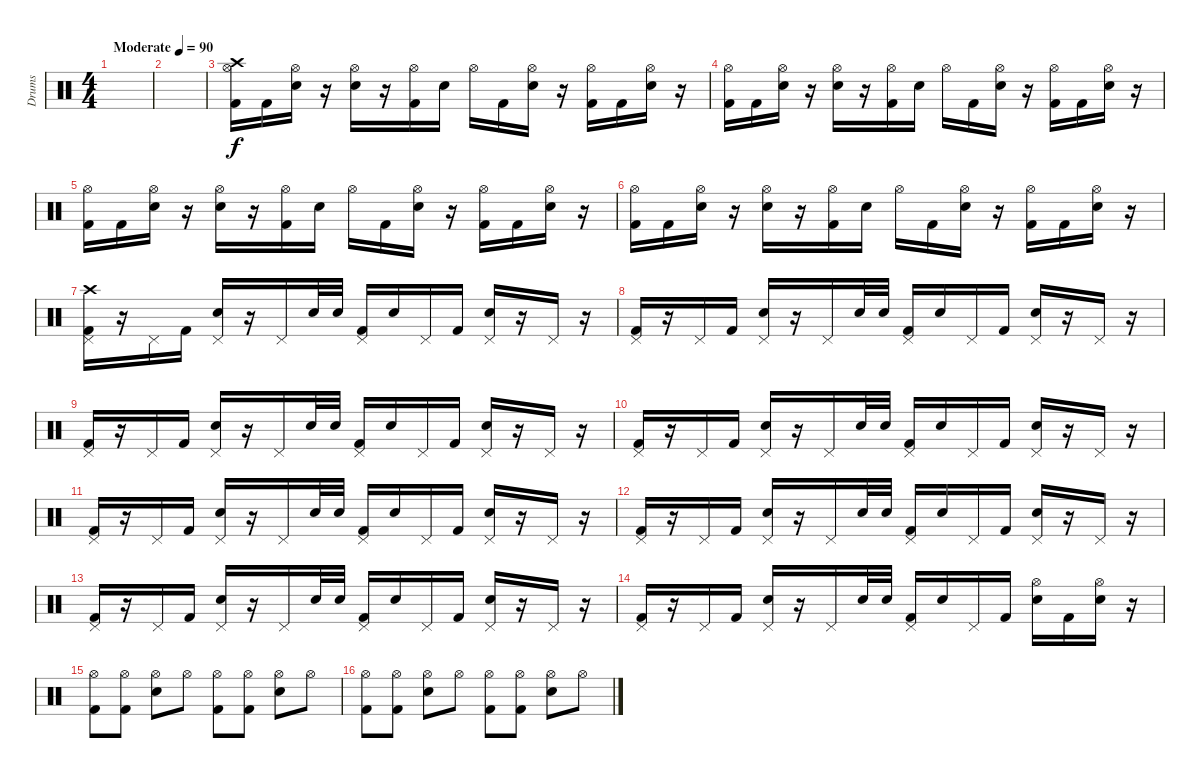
\track ("Drums" "Drums") {instrument percussion}
\staff {score}
\articulation defaults
\ts (4 4)
\tempo (90 "Moderate")
\clef neutral
\ks c
|
|
("Crash high (hit)" "Hi-Hat (open)" "Kick (hit) 2").16 "Kick (hit) 2".16 ("Hi-Hat (open)" "Electric Snare (hit)").16 r.16 ("Hi-Hat (open)" "Electric Snare (hit)").16 r.16 ("Hi-Hat (open)" "Kick (hit) 2").16 "Electric Snare (hit)".16 "Hi-Hat (open)".16 "Kick (hit) 2".16 ("Hi-Hat (open)" "Electric Snare (hit)").16 r.16 ("Hi-Hat (open)" "Kick (hit) 2").16 "Kick (hit) 2".16 ("Hi-Hat (open)" "Electric Snare (hit)").16 r.16 |
("Hi-Hat (open)" "Kick (hit) 2").16 "Kick (hit) 2".16 ("Hi-Hat (open)" "Electric Snare (hit)").16 r.16 ("Hi-Hat (open)" "Electric Snare (hit)").16 r.16 ("Hi-Hat (open)" "Kick (hit) 2").16 "Electric Snare (hit)".16 "Hi-Hat (open)".16 "Kick (hit) 2".16 ("Hi-Hat (open)" "Electric Snare (hit)").16 r.16 ("Hi-Hat (open)" "Kick (hit) 2").16 "Kick (hit) 2".16 ("Hi-Hat (open)" "Electric Snare (hit)").16 r.16 |
("Hi-Hat (open)" "Kick (hit) 2").16 "Kick (hit) 2".16 ("Hi-Hat (open)" "Electric Snare (hit)").16 r.16 ("Hi-Hat (open)" "Electric Snare (hit)").16 r.16 ("Hi-Hat (open)" "Kick (hit) 2").16 "Electric Snare (hit)".16 "Hi-Hat (open)".16 "Kick (hit) 2".16 ("Hi-Hat (open)" "Electric Snare (hit)").16 r.16 ("Hi-Hat (open)" "Kick (hit) 2").16 "Kick (hit) 2".16 ("Hi-Hat (open)" "Electric Snare (hit)").16 r.16 |
("Hi-Hat (open)" "Kick (hit) 2").16 "Kick (hit) 2".16 ("Hi-Hat (open)" "Electric Snare (hit)").16 r.16 ("Hi-Hat (open)" "Electric Snare (hit)").16 r.16 ("Hi-Hat (open)" "Kick (hit) 2").16 "Electric Snare (hit)".16 "Hi-Hat (open)".16 "Kick (hit) 2".16 ("Hi-Hat (open)" "Electric Snare (hit)").16 r.16 ("Hi-Hat (open)" "Kick (hit) 2").16 "Kick (hit) 2".16 ("Hi-Hat (open)" "Electric Snare (hit)").16 r.16 |
("Crash high (hit)" "Pedal Hi-Hat (hit)" "Kick (hit) 2").16 r.16 "Pedal Hi-Hat (hit)".16 "Kick (hit) 2".16 ("Pedal Hi-Hat (hit)" "Electric Snare (hit)").16 r.16 "Pedal Hi-Hat (hit)".16 "Electric Snare (hit)".32 "Electric Snare (hit)".32 ("Pedal Hi-Hat (hit)" "Kick (hit) 2").16 "Electric Snare (hit)".16 "Pedal Hi-Hat (hit)".16 "Kick (hit) 2".16 ("Pedal Hi-Hat (hit)" "Electric Snare (hit)").16 r.16 "Pedal Hi-Hat (hit)".16 r.16 |
("Pedal Hi-Hat (hit)" "Kick (hit) 2").16 r.16 "Pedal Hi-Hat (hit)".16 "Kick (hit) 2".16 ("Pedal Hi-Hat (hit)" "Electric Snare (hit)").16 r.16 "Pedal Hi-Hat (hit)".16 "Electric Snare (hit)".32 "Electric Snare (hit)".32 ("Pedal Hi-Hat (hit)" "Kick (hit) 2").16 "Electric Snare (hit)".16 "Pedal Hi-Hat (hit)".16 "Kick (hit) 2".16 ("Pedal Hi-Hat (hit)" "Electric Snare (hit)").16 r.16 "Pedal Hi-Hat (hit)".16 r.16 |
("Pedal Hi-Hat (hit)" "Kick (hit) 2").16 r.16 "Pedal Hi-Hat (hit)".16 "Kick (hit) 2".16 ("Pedal Hi-Hat (hit)" "Electric Snare (hit)").16 r.16 "Pedal Hi-Hat (hit)".16 "Electric Snare (hit)".32 "Electric Snare (hit)".32 ("Pedal Hi-Hat (hit)" "Kick (hit) 2").16 "Electric Snare (hit)".16 "Pedal Hi-Hat (hit)".16 "Kick (hit) 2".16 ("Pedal Hi-Hat (hit)" "Electric Snare (hit)").16 r.16 "Pedal Hi-Hat (hit)".16 r.16 |
("Pedal Hi-Hat (hit)" "Kick (hit) 2").16 r.16 "Pedal Hi-Hat (hit)".16 "Kick (hit) 2".16 ("Pedal Hi-Hat (hit)" "Electric Snare (hit)").16 r.16 "Pedal Hi-Hat (hit)".16 "Electric Snare (hit)".32 "Electric Snare (hit)".32 ("Pedal Hi-Hat (hit)" "Kick (hit) 2").16 "Electric Snare (hit)".16 "Pedal Hi-Hat (hit)".16 "Kick (hit) 2".16 ("Pedal Hi-Hat (hit)" "Electric Snare (hit)").16 r.16 "Pedal Hi-Hat (hit)".16 r.16 |
("Pedal Hi-Hat (hit)" "Kick (hit) 2").16 r.16 "Pedal Hi-Hat (hit)".16 "Kick (hit) 2".16 ("Pedal Hi-Hat (hit)" "Electric Snare (hit)").16 r.16 "Pedal Hi-Hat (hit)".16 "Electric Snare (hit)".32 "Electric Snare (hit)".32 ("Pedal Hi-Hat (hit)" "Kick (hit) 2").16 "Electric Snare (hit)".16 "Pedal Hi-Hat (hit)".16 "Kick (hit) 2".16 ("Pedal Hi-Hat (hit)" "Electric Snare (hit)").16 r.16 "Pedal Hi-Hat (hit)".16 r.16 |
("Pedal Hi-Hat (hit)" "Kick (hit) 2").16 r.16 "Pedal Hi-Hat (hit)".16 "Kick (hit) 2".16 ("Pedal Hi-Hat (hit)" "Electric Snare (hit)").16 r.16 "Pedal Hi-Hat (hit)".16 "Electric Snare (hit)".32 "Electric Snare (hit)".32 ("Pedal Hi-Hat (hit)" "Kick (hit) 2").16 "Electric Snare (hit)".16 "Pedal Hi-Hat (hit)".16 "Kick (hit) 2".16 ("Pedal Hi-Hat (hit)" "Electric Snare (hit)").16 r.16 "Pedal Hi-Hat (hit)".16 r.16 |
("Pedal Hi-Hat (hit)" "Kick (hit) 2").16 r.16 "Pedal Hi-Hat (hit)".16 "Kick (hit) 2".16 ("Pedal Hi-Hat (hit)" "Electric Snare (hit)").16 r.16 "Pedal Hi-Hat (hit)".16 "Electric Snare (hit)".32 "Electric Snare (hit)".32 ("Pedal Hi-Hat (hit)" "Kick (hit) 2").16 "Electric Snare (hit)".16 "Pedal Hi-Hat (hit)".16 "Kick (hit) 2".16 ("Pedal Hi-Hat (hit)" "Electric Snare (hit)").16 r.16 "Pedal Hi-Hat (hit)".16 r.16 |
("Pedal Hi-Hat (hit)" "Kick (hit) 2").16 r.16 "Pedal Hi-Hat (hit)".16 "Kick (hit) 2".16 ("Pedal Hi-Hat (hit)" "Electric Snare (hit)").16 r.16 "Pedal Hi-Hat (hit)".16 "Electric Snare (hit)".32 "Electric Snare (hit)".32 ("Pedal Hi-Hat (hit)" "Kick (hit) 2").16 "Electric Snare (hit)".16 "Pedal Hi-Hat (hit)".16 "Kick (hit) 2".16 ("Hi-Hat (open)" "Electric Snare (hit)").16 "Kick (hit) 2".16 ("Hi-Hat (open)" "Electric Snare (hit)").16 r.16 |
("Hi-Hat (open)" "Kick (hit) 2").8 ("Hi-Hat (open)" "Kick (hit) 2").8 ("Hi-Hat (open)" "Electric Snare (hit)").8 "Hi-Hat (open)".8 ("Hi-Hat (open)" "Kick (hit) 2").8 ("Hi-Hat (open)" "Kick (hit) 2").8 ("Hi-Hat (open)" "Electric Snare (hit)").8 "Hi-Hat (open)".8 |
("Hi-Hat (open)" "Kick (hit) 2").8 ("Hi-Hat (open)" "Kick (hit) 2").8 ("Hi-Hat (open)" "Electric Snare (hit)").8 "Hi-Hat (open)".8 ("Hi-Hat (open)" "Kick (hit) 2").8 ("Hi-Hat (open)" "Kick (hit) 2").8 ("Hi-Hat (open)" "Electric Snare (hit)").8 "Hi-Hat (open)".8
